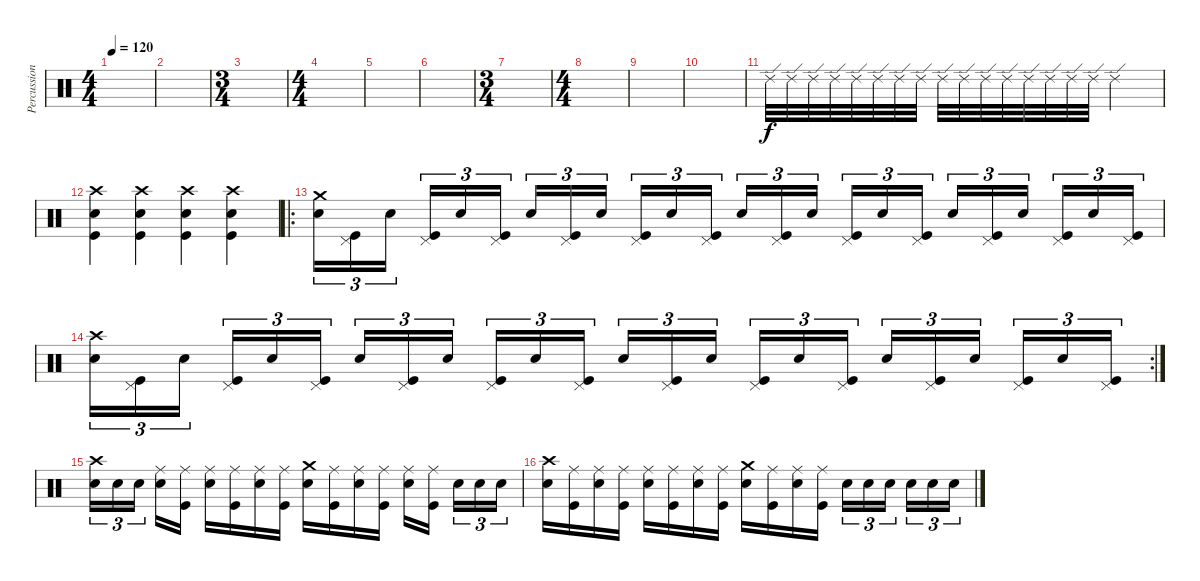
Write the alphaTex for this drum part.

\track ("Percussioni" "Percussion") {instrument percussion}
\staff {score}
\articulation defaults
\ts (4 4)
\tempo 120
\clef neutral
\ks c
|
|
\ts (3 4)
|
\ts (4 4)
|
|
|
\ts (3 4)
|
\ts (4 4)
|
|
|
"Ride (edge) 2".32 "Ride (edge) 2".32 "Ride (edge) 2".32 "Ride (edge) 2".32 "Ride (edge) 2".32 "Ride (edge) 2".32 "Ride (edge) 2".32 "Ride (edge) 2".32 "Ride (edge) 2".32 "Ride (edge) 2".32 "Ride (edge) 2".32 "Ride (edge) 2".32 "Ride (edge) 2".32 "Ride (edge) 2".32 "Ride (edge) 2".32 "Ride (edge) 2".32 "Ride (edge) 2".2 |
("Crash high (hit)" "Electric Snare (hit)" "Kick (hit)").4 ("Crash high (hit)" "Electric Snare (hit)" "Kick (hit)").4 ("Crash high (hit)" "Electric Snare (hit)" "Kick (hit)").4 ("Crash high (hit)" "Electric Snare (hit)" "Kick (hit)").4 |
\ro
("Crash medium (hit)" "Electric Snare (hit)").16{tu (3 2)} ("Pedal Hi-Hat (hit)" "Kick (hit)").16{tu (3 2)} "Electric Snare (hit)".16{tu (3 2)} ("Pedal Hi-Hat (hit)" "Kick (hit)").16{tu (3 2)} "Electric Snare (hit)".16{tu (3 2)} ("Pedal Hi-Hat (hit)" "Kick (hit)").16{tu (3 2)} "Electric Snare (hit)".16{tu (3 2)} ("Pedal Hi-Hat (hit)" "Kick (hit)").16{tu (3 2)} "Electric Snare (hit)".16{tu (3 2)} ("Pedal Hi-Hat (hit)" "Kick (hit)").16{tu (3 2)} "Electric Snare (hit)".16{tu (3 2)} ("Pedal Hi-Hat (hit)" "Kick (hit)").16{tu (3 2)} "Electric Snare (hit)".16{tu (3 2)} ("Pedal Hi-Hat (hit)" "Kick (hit)").16{tu (3 2)} "Electric Snare (hit)".16{tu (3 2)} ("Pedal Hi-Hat (hit)" "Kick (hit)").16{tu (3 2)} "Electric Snare (hit)".16{tu (3 2)} ("Pedal Hi-Hat (hit)" "Kick (hit)").16{tu (3 2)} "Electric Snare (hit)".16{tu (3 2)} ("Pedal Hi-Hat (hit)" "Kick (hit)").16{tu (3 2)} "Electric Snare (hit)".16{tu (3 2)} ("Pedal Hi-Hat (hit)" "Kick (hit)").16{tu (3 2)} "Electric Snare (hit)".16{tu (3 2)} ("Pedal Hi-Hat (hit)" "Kick (hit)").16{tu (3 2)} |
\rc 2
("Crash high (hit)" "Electric Snare (hit)").16{tu (3 2)} ("Pedal Hi-Hat (hit)" "Kick (hit)").16{tu (3 2)} "Electric Snare (hit)".16{tu (3 2)} ("Pedal Hi-Hat (hit)" "Kick (hit)").16{tu (3 2)} "Electric Snare (hit)".16{tu (3 2)} ("Pedal Hi-Hat (hit)" "Kick (hit)").16{tu (3 2)} "Electric Snare (hit)".16{tu (3 2)} ("Pedal Hi-Hat (hit)" "Kick (hit)").16{tu (3 2)} "Electric Snare (hit)".16{tu (3 2)} ("Pedal Hi-Hat (hit)" "Kick (hit)").16{tu (3 2)} "Electric Snare (hit)".16{tu (3 2)} ("Pedal Hi-Hat (hit)" "Kick (hit)").16{tu (3 2)} "Electric Snare (hit)".16{tu (3 2)} ("Pedal Hi-Hat (hit)" "Kick (hit)").16{tu (3 2)} "Electric Snare (hit)".16{tu (3 2)} ("Pedal Hi-Hat (hit)" "Kick (hit)").16{tu (3 2)} "Electric Snare (hit)".16{tu (3 2)} ("Pedal Hi-Hat (hit)" "Kick (hit)").16{tu (3 2)} "Electric Snare (hit)".16{tu (3 2)} ("Pedal Hi-Hat (hit)" "Kick (hit)").16{tu (3 2)} "Electric Snare (hit)".16{tu (3 2)} ("Pedal Hi-Hat (hit)" "Kick (hit)").16{tu (3 2)} "Electric Snare (hit)".16{tu (3 2)} ("Pedal Hi-Hat (hit)" "Kick (hit)").16{tu (3 2)} |
("Crash high (hit)" "Electric Snare (hit)").16{tu (3 2)} "Electric Snare (hit)".16{tu (3 2)} "Electric Snare (hit)".16{tu (3 2)} ("Ride (middle)" "Electric Snare (hit)").16 ("Ride (middle)" "Kick (hit)").16 ("Ride (middle)" "Electric Snare (hit)").16 ("Ride (middle)" "Kick (hit)").16 ("Ride (middle)" "Electric Snare (hit)").16 ("Ride (middle)" "Kick (hit)").16 ("Crash medium (hit)" "Electric Snare (hit)").16 ("Ride (middle)" "Kick (hit)").16 ("Ride (middle)" "Electric Snare (hit)").16 ("Ride (middle)" "Kick (hit)").16 ("Ride (middle)" "Electric Snare (hit)").16 ("Ride (middle)" "Kick (hit)").16 "Electric Snare (hit)".16{tu (3 2)} "Electric Snare (hit)".16{tu (3 2)} "Electric Snare (hit)".16{tu (3 2)} |
("Crash high (hit)" "Electric Snare (hit)").16 ("Ride (middle)" "Kick (hit)").16 ("Ride (middle)" "Electric Snare (hit)").16 ("Ride (middle)" "Kick (hit)").16 ("Ride (middle)" "Electric Snare (hit)").16 ("Ride (middle)" "Kick (hit)").16 ("Ride (middle)" "Electric Snare (hit)").16 ("Ride (middle)" "Kick (hit)").16 ("Crash medium (hit)" "Electric Snare (hit)").16 ("Ride (middle)" "Kick (hit)").16 ("Ride (middle)" "Electric Snare (hit)").16 ("Ride (middle)" "Kick (hit)").16 "Electric Snare (hit)".16{tu (3 2)} "Electric Snare (hit)".16{tu (3 2)} "Electric Snare (hit)".16{tu (3 2)} "Electric Snare (hit)".16{tu (3 2)} "Electric Snare (hit)".16{tu (3 2)} "Electric Snare (hit)".16{tu (3 2)}
